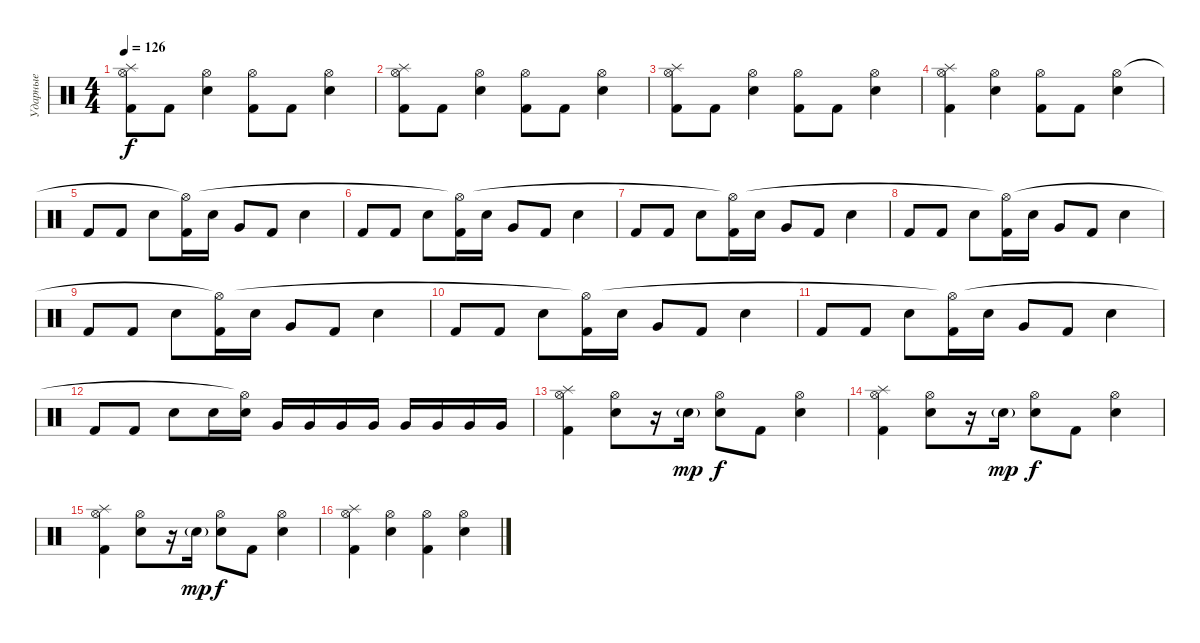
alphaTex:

\track ("Ударные" "Ударные") {instrument percussion}
\staff {score}
\articulation defaults
\ts (4 4)
\tempo 126
\clef neutral
\ks c
("Kick (hit) 2" "Hi-Hat (open)" "Splash (hit)").8{dy f} "Kick (hit) 2".8 ("Electric Snare (hit)" "Hi-Hat (open)").4 ("Kick (hit) 2" "Hi-Hat (open)").8 "Kick (hit) 2".8 ("Electric Snare (hit)" "Hi-Hat (open)").4 |
("Kick (hit) 2" "Hi-Hat (open)" "Splash (hit)").8 "Kick (hit) 2".8 ("Electric Snare (hit)" "Hi-Hat (open)").4 ("Kick (hit) 2" "Hi-Hat (open)").8 "Kick (hit) 2".8 ("Electric Snare (hit)" "Hi-Hat (open)").4 |
("Kick (hit) 2" "Hi-Hat (open)" "Splash (hit)").8 "Kick (hit) 2".8 ("Electric Snare (hit)" "Hi-Hat (open)").4 ("Kick (hit) 2" "Hi-Hat (open)").8 "Kick (hit) 2".8 ("Electric Snare (hit)" "Hi-Hat (open)").4 |
("Kick (hit) 2" "Hi-Hat (open)" "Splash (hit)").4 ("Electric Snare (hit)" "Hi-Hat (open)").4 ("Kick (hit) 2" "Hi-Hat (open)").8 "Kick (hit) 2".8 ("Electric Snare (hit)" "Hi-Hat (open)").4 |
"Kick (hit) 2".8 "Kick (hit) 2".8 "Electric Snare (hit)".8 ("Kick (hit) 2" "Hi-Hat (open)"{t}).16 "Electric Snare (hit)".16 "Very Low Tom (hit)".8 "Kick (hit) 2".8 "Electric Snare (hit)".4 |
"Kick (hit) 2".8 "Kick (hit) 2".8 "Electric Snare (hit)".8 ("Kick (hit) 2" "Hi-Hat (open)"{t}).16 "Electric Snare (hit)".16 "Very Low Tom (hit)".8 "Kick (hit) 2".8 "Electric Snare (hit)".4 |
"Kick (hit) 2".8 "Kick (hit) 2".8 "Electric Snare (hit)".8 ("Kick (hit) 2" "Hi-Hat (open)"{t}).16 "Electric Snare (hit)".16 "Very Low Tom (hit)".8 "Kick (hit) 2".8 "Electric Snare (hit)".4 |
"Kick (hit) 2".8 "Kick (hit) 2".8 "Electric Snare (hit)".8 ("Kick (hit) 2" "Hi-Hat (open)"{t}).16 "Electric Snare (hit)".16 "Very Low Tom (hit)".8 "Kick (hit) 2".8 "Electric Snare (hit)".4 |
"Kick (hit) 2".8 "Kick (hit) 2".8 "Electric Snare (hit)".8 ("Kick (hit) 2" "Hi-Hat (open)"{t}).16 "Electric Snare (hit)".16 "Very Low Tom (hit)".8 "Kick (hit) 2".8 "Electric Snare (hit)".4 |
"Kick (hit) 2".8 "Kick (hit) 2".8 "Electric Snare (hit)".8 ("Kick (hit) 2" "Hi-Hat (open)"{t}).16 "Electric Snare (hit)".16 "Very Low Tom (hit)".8 "Kick (hit) 2".8 "Electric Snare (hit)".4 |
"Kick (hit) 2".8 "Kick (hit) 2".8 "Electric Snare (hit)".8 ("Kick (hit) 2" "Hi-Hat (open)"{t}).16 "Electric Snare (hit)".16 "Very Low Tom (hit)".8 "Kick (hit) 2".8 "Electric Snare (hit)".4 |
"Kick (hit) 2".8 "Kick (hit) 2".8 "Electric Snare (hit)".8 "Electric Snare (hit)".16 ("Electric Snare (hit)" "Hi-Hat (open)"{t}).16 "Very Low Tom (hit)".16 "Very Low Tom (hit)".16 "Very Low Tom (hit)".16 "Very Low Tom (hit)".16 "Very Low Tom (hit)".16 "Very Low Tom (hit)".16 "Very Low Tom (hit)".16 "Very Low Tom (hit)".16 |
("Kick (hit) 2" "Hi-Hat (open)" "Splash (hit)").4 ("Electric Snare (hit)" "Hi-Hat (open)").8 r.16 "Electric Snare (hit)"{g}.16{dy mp} ("Electric Snare (hit)" "Hi-Hat (open)").8{dy f} "Kick (hit) 2".8 ("Electric Snare (hit)" "Hi-Hat (open)").4 |
("Kick (hit) 2" "Hi-Hat (open)" "Splash (hit)").4 ("Electric Snare (hit)" "Hi-Hat (open)").8 r.16 "Electric Snare (hit)"{g}.16{dy mp} ("Electric Snare (hit)" "Hi-Hat (open)").8{dy f} "Kick (hit) 2".8 ("Electric Snare (hit)" "Hi-Hat (open)").4 |
("Kick (hit) 2" "Hi-Hat (open)" "Splash (hit)").4 ("Electric Snare (hit)" "Hi-Hat (open)").8 r.16 "Electric Snare (hit)"{g}.16{dy mp} ("Electric Snare (hit)" "Hi-Hat (open)").8{dy f} "Kick (hit) 2".8 ("Electric Snare (hit)" "Hi-Hat (open)").4 |
("Kick (hit) 2" "Hi-Hat (open)" "Splash (hit)").4 ("Electric Snare (hit)" "Hi-Hat (open)").4 ("Kick (hit) 2" "Hi-Hat (open)").4 ("Electric Snare (hit)" "Hi-Hat (open)").4
